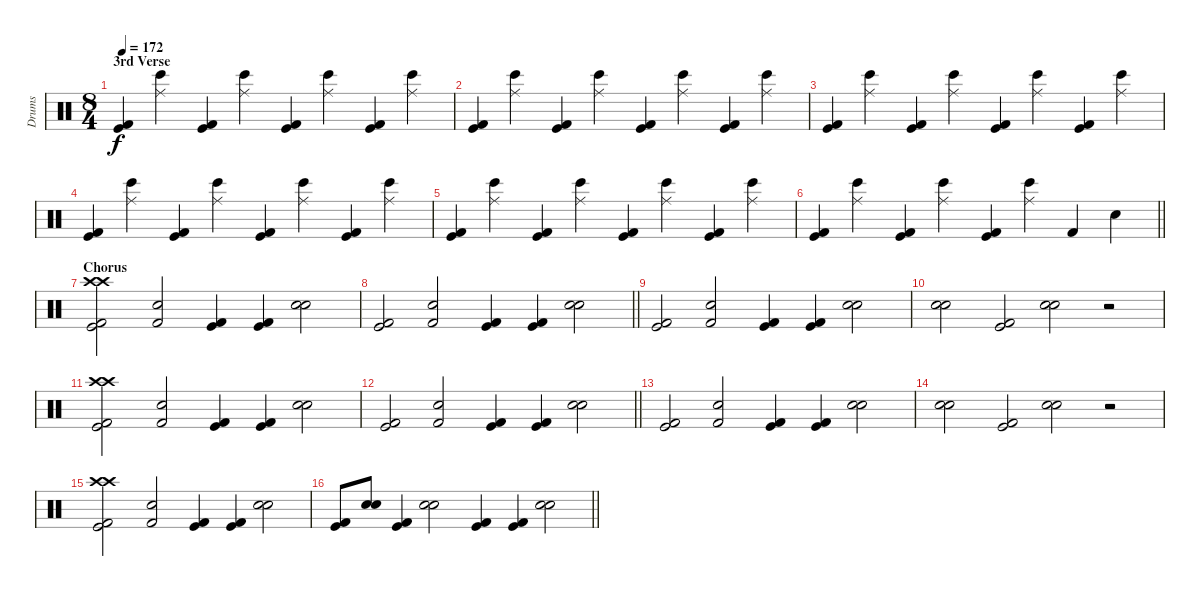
\track ("Drums" "Drums") {instrument percussion}
\staff {score}
\articulation defaults
\ts (8 4)
\section ("" "3rd Verse")
\tempo 172
\clef neutral
\ks c
("Kick (hit) 2" "Kick (hit)").4{dy f} ("Ride (middle)" "Bongo High (hit)").4 ("Kick (hit) 2" "Kick (hit)").4 ("Ride (middle)" "Bongo High (hit)").4 ("Kick (hit) 2" "Kick (hit)").4 ("Ride (middle)" "Bongo High (hit)").4 ("Kick (hit) 2" "Kick (hit)").4 ("Ride (middle)" "Bongo High (hit)").4 |
("Kick (hit) 2" "Kick (hit)").4 ("Ride (middle)" "Bongo High (hit)").4 ("Kick (hit) 2" "Kick (hit)").4 ("Ride (middle)" "Bongo High (hit)").4 ("Kick (hit) 2" "Kick (hit)").4 ("Ride (middle)" "Bongo High (hit)").4 ("Kick (hit) 2" "Kick (hit)").4 ("Ride (middle)" "Bongo High (hit)").4 |
("Kick (hit) 2" "Kick (hit)").4 ("Ride (middle)" "Bongo High (hit)").4 ("Kick (hit) 2" "Kick (hit)").4 ("Ride (middle)" "Bongo High (hit)").4 ("Kick (hit) 2" "Kick (hit)").4 ("Ride (middle)" "Bongo High (hit)").4 ("Kick (hit) 2" "Kick (hit)").4 ("Ride (middle)" "Bongo High (hit)").4 |
("Kick (hit) 2" "Kick (hit)").4 ("Ride (middle)" "Bongo High (hit)").4 ("Kick (hit) 2" "Kick (hit)").4 ("Ride (middle)" "Bongo High (hit)").4 ("Kick (hit) 2" "Kick (hit)").4 ("Ride (middle)" "Bongo High (hit)").4 ("Kick (hit) 2" "Kick (hit)").4 ("Ride (middle)" "Bongo High (hit)").4 |
("Kick (hit) 2" "Kick (hit)").4 ("Ride (middle)" "Bongo High (hit)").4 ("Kick (hit) 2" "Kick (hit)").4 ("Ride (middle)" "Bongo High (hit)").4 ("Kick (hit) 2" "Kick (hit)").4 ("Ride (middle)" "Bongo High (hit)").4 ("Kick (hit) 2" "Kick (hit)").4 ("Ride (middle)" "Bongo High (hit)").4 |
\barLineRight lightlight
("Kick (hit) 2" "Kick (hit)").4 ("Ride (middle)" "Bongo High (hit)").4 ("Kick (hit) 2" "Kick (hit)").4 ("Ride (middle)" "Bongo High (hit)").4 ("Kick (hit) 2" "Kick (hit)").4 ("Ride (middle)" "Bongo High (hit)").4 "Kick (hit) 2".4 "Snare (hit) 2".4 |
\section ("" "Chorus")
("Crash high (hit)" "Kick (hit) 2" "Kick (hit)" "Crash high (hit)").2 ("Snare (hit) 2" "Kick (hit) 2").2 ("Kick (hit) 2" "Kick (hit)").4 ("Kick (hit) 2" "Kick (hit)").4 ("Snare (hit) 2" "Electric Snare (hit)").2 |
\barLineRight lightlight
("Kick (hit) 2" "Kick (hit)").2 ("Snare (hit) 2" "Kick (hit) 2").2 ("Kick (hit) 2" "Kick (hit)").4 ("Kick (hit) 2" "Kick (hit)").4 ("Snare (hit) 2" "Electric Snare (hit)").2 |
("Kick (hit) 2" "Kick (hit)").2 ("Snare (hit) 2" "Kick (hit) 2").2 ("Kick (hit) 2" "Kick (hit)").4 ("Kick (hit) 2" "Kick (hit)").4 ("Snare (hit) 2" "Electric Snare (hit)").2 |
("Snare (hit) 2" "Snare (hit) 2").2 ("Kick (hit) 2" "Kick (hit)").2 ("Snare (hit) 2" "Electric Snare (hit)").2 r.2 |
("Crash high (hit)" "Kick (hit) 2" "Kick (hit)" "Crash high (hit)").2 ("Snare (hit) 2" "Kick (hit) 2").2 ("Kick (hit) 2" "Kick (hit)").4 ("Kick (hit) 2" "Kick (hit)").4 ("Snare (hit) 2" "Electric Snare (hit)").2 |
\barLineRight lightlight
("Kick (hit) 2" "Kick (hit)").2 ("Snare (hit) 2" "Kick (hit) 2").2 ("Kick (hit) 2" "Kick (hit)").4 ("Kick (hit) 2" "Kick (hit)").4 ("Snare (hit) 2" "Electric Snare (hit)").2 |
("Kick (hit) 2" "Kick (hit)").2 ("Snare (hit) 2" "Kick (hit) 2").2 ("Kick (hit) 2" "Kick (hit)").4 ("Kick (hit) 2" "Kick (hit)").4 ("Snare (hit) 2" "Electric Snare (hit)").2 |
("Snare (hit) 2" "Snare (hit) 2").2 ("Kick (hit) 2" "Kick (hit)").2 ("Snare (hit) 2" "Electric Snare (hit)").2 r.2 |
("Crash high (hit)" "Kick (hit) 2" "Kick (hit)" "Crash high (hit)").2 ("Snare (hit) 2" "Kick (hit) 2").2 ("Kick (hit) 2" "Kick (hit)").4 ("Kick (hit) 2" "Kick (hit)").4 ("Snare (hit) 2" "Electric Snare (hit)").2 |
\barLineRight lightlight
("Kick (hit) 2" "Kick (hit)").8 ("Snare (hit) 2" "Snare (hit) 2").8 ("Kick (hit) 2" "Kick (hit)").4 ("Snare (hit) 2" "Electric Snare (hit)").2 ("Kick (hit) 2" "Kick (hit)").4 ("Kick (hit) 2" "Kick (hit)").4 ("Snare (hit) 2" "Electric Snare (hit)").2
